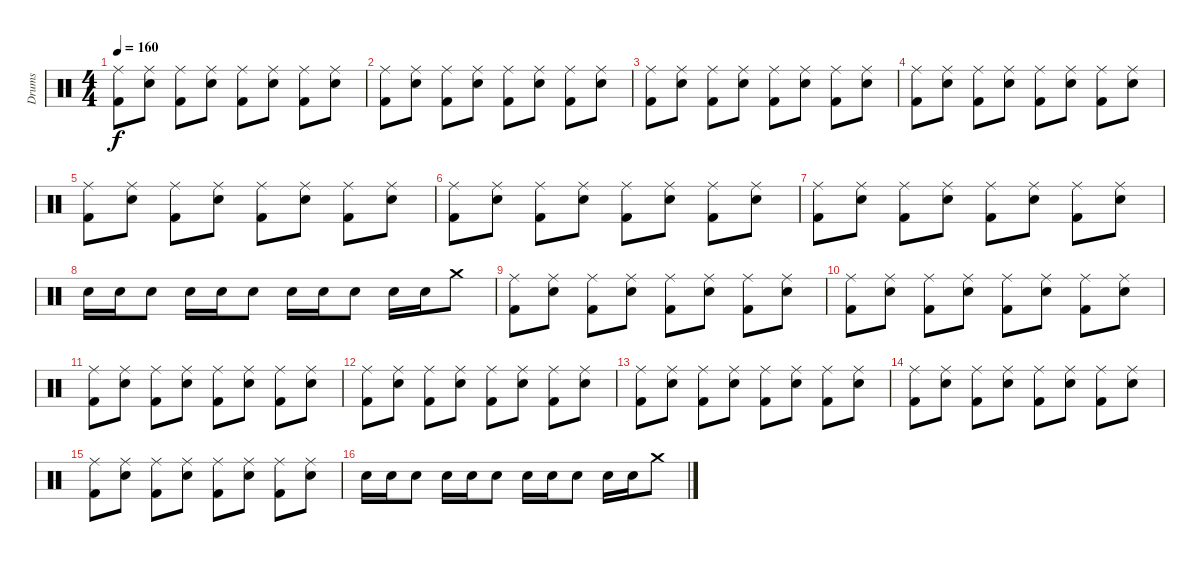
\track ("Drums" "Drums") {instrument percussion}
\staff {score}
\articulation defaults
\ts (4 4)
\tempo 160
\clef neutral
\ks c
("Ride (middle)" "Kick (hit) 2").8{dy f} ("Ride (middle)" "Electric Snare (hit)").8 ("Ride (middle)" "Kick (hit) 2").8 ("Ride (middle)" "Electric Snare (hit)").8 ("Ride (middle)" "Kick (hit) 2").8 ("Ride (middle)" "Electric Snare (hit)").8 ("Ride (middle)" "Kick (hit) 2").8 ("Ride (middle)" "Electric Snare (hit)").8 |
("Ride (middle)" "Kick (hit) 2").8 ("Ride (middle)" "Electric Snare (hit)").8 ("Ride (middle)" "Kick (hit) 2").8 ("Ride (middle)" "Electric Snare (hit)").8 ("Ride (middle)" "Kick (hit) 2").8 ("Ride (middle)" "Electric Snare (hit)").8 ("Ride (middle)" "Kick (hit) 2").8 ("Ride (middle)" "Electric Snare (hit)").8 |
("Ride (middle)" "Kick (hit) 2").8 ("Ride (middle)" "Electric Snare (hit)").8 ("Ride (middle)" "Kick (hit) 2").8 ("Ride (middle)" "Electric Snare (hit)").8 ("Ride (middle)" "Kick (hit) 2").8 ("Ride (middle)" "Electric Snare (hit)").8 ("Ride (middle)" "Kick (hit) 2").8 ("Ride (middle)" "Electric Snare (hit)").8 |
("Ride (middle)" "Kick (hit) 2").8 ("Ride (middle)" "Electric Snare (hit)").8 ("Ride (middle)" "Kick (hit) 2").8 ("Ride (middle)" "Electric Snare (hit)").8 ("Ride (middle)" "Kick (hit) 2").8 ("Ride (middle)" "Electric Snare (hit)").8 ("Ride (middle)" "Kick (hit) 2").8 ("Ride (middle)" "Electric Snare (hit)").8 |
("Ride (middle)" "Kick (hit) 2").8 ("Ride (middle)" "Electric Snare (hit)").8 ("Ride (middle)" "Kick (hit) 2").8 ("Ride (middle)" "Electric Snare (hit)").8 ("Ride (middle)" "Kick (hit) 2").8 ("Ride (middle)" "Electric Snare (hit)").8 ("Ride (middle)" "Kick (hit) 2").8 ("Ride (middle)" "Electric Snare (hit)").8 |
("Ride (middle)" "Kick (hit) 2").8 ("Ride (middle)" "Electric Snare (hit)").8 ("Ride (middle)" "Kick (hit) 2").8 ("Ride (middle)" "Electric Snare (hit)").8 ("Ride (middle)" "Kick (hit) 2").8 ("Ride (middle)" "Electric Snare (hit)").8 ("Ride (middle)" "Kick (hit) 2").8 ("Ride (middle)" "Electric Snare (hit)").8 |
("Ride (middle)" "Kick (hit) 2").8 ("Ride (middle)" "Electric Snare (hit)").8 ("Ride (middle)" "Kick (hit) 2").8 ("Ride (middle)" "Electric Snare (hit)").8 ("Ride (middle)" "Kick (hit) 2").8 ("Ride (middle)" "Electric Snare (hit)").8 ("Ride (middle)" "Kick (hit) 2").8 ("Ride (middle)" "Electric Snare (hit)").8 |
"Electric Snare (hit)".16 "Electric Snare (hit)".16 "Electric Snare (hit)".8 "Electric Snare (hit)".16 "Electric Snare (hit)".16 "Electric Snare (hit)".8 "Electric Snare (hit)".16 "Electric Snare (hit)".16 "Electric Snare (hit)".8 "Electric Snare (hit)".16 "Electric Snare (hit)".16 "Crash medium (hit)".8 |
("Ride (middle)" "Kick (hit) 2").8 ("Ride (middle)" "Electric Snare (hit)").8 ("Ride (middle)" "Kick (hit) 2").8 ("Ride (middle)" "Electric Snare (hit)").8 ("Ride (middle)" "Kick (hit) 2").8 ("Ride (middle)" "Electric Snare (hit)").8 ("Ride (middle)" "Kick (hit) 2").8 ("Ride (middle)" "Electric Snare (hit)").8 |
("Ride (middle)" "Kick (hit) 2").8 ("Ride (middle)" "Electric Snare (hit)").8 ("Ride (middle)" "Kick (hit) 2").8 ("Ride (middle)" "Electric Snare (hit)").8 ("Ride (middle)" "Kick (hit) 2").8 ("Ride (middle)" "Electric Snare (hit)").8 ("Ride (middle)" "Kick (hit) 2").8 ("Ride (middle)" "Electric Snare (hit)").8 |
("Ride (middle)" "Kick (hit) 2").8 ("Ride (middle)" "Electric Snare (hit)").8 ("Ride (middle)" "Kick (hit) 2").8 ("Ride (middle)" "Electric Snare (hit)").8 ("Ride (middle)" "Kick (hit) 2").8 ("Ride (middle)" "Electric Snare (hit)").8 ("Ride (middle)" "Kick (hit) 2").8 ("Ride (middle)" "Electric Snare (hit)").8 |
("Ride (middle)" "Kick (hit) 2").8 ("Ride (middle)" "Electric Snare (hit)").8 ("Ride (middle)" "Kick (hit) 2").8 ("Ride (middle)" "Electric Snare (hit)").8 ("Ride (middle)" "Kick (hit) 2").8 ("Ride (middle)" "Electric Snare (hit)").8 ("Ride (middle)" "Kick (hit) 2").8 ("Ride (middle)" "Electric Snare (hit)").8 |
("Ride (middle)" "Kick (hit) 2").8 ("Ride (middle)" "Electric Snare (hit)").8 ("Ride (middle)" "Kick (hit) 2").8 ("Ride (middle)" "Electric Snare (hit)").8 ("Ride (middle)" "Kick (hit) 2").8 ("Ride (middle)" "Electric Snare (hit)").8 ("Ride (middle)" "Kick (hit) 2").8 ("Ride (middle)" "Electric Snare (hit)").8 |
("Ride (middle)" "Kick (hit) 2").8 ("Ride (middle)" "Electric Snare (hit)").8 ("Ride (middle)" "Kick (hit) 2").8 ("Ride (middle)" "Electric Snare (hit)").8 ("Ride (middle)" "Kick (hit) 2").8 ("Ride (middle)" "Electric Snare (hit)").8 ("Ride (middle)" "Kick (hit) 2").8 ("Ride (middle)" "Electric Snare (hit)").8 |
("Ride (middle)" "Kick (hit) 2").8 ("Ride (middle)" "Electric Snare (hit)").8 ("Ride (middle)" "Kick (hit) 2").8 ("Ride (middle)" "Electric Snare (hit)").8 ("Ride (middle)" "Kick (hit) 2").8 ("Ride (middle)" "Electric Snare (hit)").8 ("Ride (middle)" "Kick (hit) 2").8 ("Ride (middle)" "Electric Snare (hit)").8 |
"Electric Snare (hit)".16 "Electric Snare (hit)".16 "Electric Snare (hit)".8 "Electric Snare (hit)".16 "Electric Snare (hit)".16 "Electric Snare (hit)".8 "Electric Snare (hit)".16 "Electric Snare (hit)".16 "Electric Snare (hit)".8 "Electric Snare (hit)".16 "Electric Snare (hit)".16 "Crash medium (hit)".8
